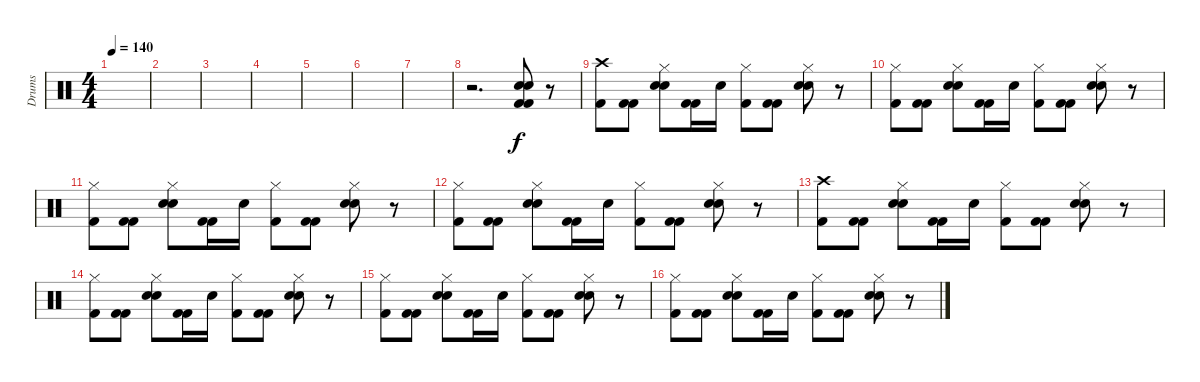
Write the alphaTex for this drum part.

\track ("Drums" "Drums") {instrument percussion}
\staff {score}
\articulation defaults
\ts (4 4)
\tempo 140
\clef neutral
\ks c
|
|
|
|
|
|
|
r.2{d} ("Hand Clap (hit)" "Snare (hit) 2" "Kick (hit) 2" "Kick (hit) 2").8 r.8 |
("Crash high (hit)" "Kick (hit) 2").8 ("Kick (hit) 2" "Kick (hit) 2").8 ("Hi-Hat (closed)" "Hand Clap (hit)" "Snare (hit) 2").8 ("Kick (hit) 2" "Kick (hit) 2").16 "Snare (hit) 2".16 ("Hi-Hat (closed)" "Kick (hit) 2").8 ("Kick (hit) 2" "Kick (hit) 2").8 ("Hi-Hat (closed)" "Hand Clap (hit)" "Snare (hit) 2").8 r.8 |
("Hi-Hat (closed)" "Kick (hit) 2").8 ("Kick (hit) 2" "Kick (hit) 2").8 ("Hi-Hat (closed)" "Hand Clap (hit)" "Snare (hit) 2").8 ("Kick (hit) 2" "Kick (hit) 2").16 "Snare (hit) 2".16 ("Hi-Hat (closed)" "Kick (hit) 2").8 ("Kick (hit) 2" "Kick (hit) 2").8 ("Hi-Hat (closed)" "Hand Clap (hit)" "Snare (hit) 2").8 r.8 |
("Hi-Hat (closed)" "Kick (hit) 2").8 ("Kick (hit) 2" "Kick (hit) 2").8 ("Hi-Hat (closed)" "Hand Clap (hit)" "Snare (hit) 2").8 ("Kick (hit) 2" "Kick (hit) 2").16 "Snare (hit) 2".16 ("Hi-Hat (closed)" "Kick (hit) 2").8 ("Kick (hit) 2" "Kick (hit) 2").8 ("Hi-Hat (closed)" "Hand Clap (hit)" "Snare (hit) 2").8 r.8 |
("Hi-Hat (closed)" "Kick (hit) 2").8 ("Kick (hit) 2" "Kick (hit) 2").8 ("Hi-Hat (closed)" "Hand Clap (hit)" "Snare (hit) 2").8 ("Kick (hit) 2" "Kick (hit) 2").16 "Snare (hit) 2".16 ("Hi-Hat (closed)" "Kick (hit) 2").8 ("Kick (hit) 2" "Kick (hit) 2").8 ("Hi-Hat (closed)" "Hand Clap (hit)" "Snare (hit) 2").8 r.8 |
("Crash high (hit)" "Kick (hit) 2").8 ("Kick (hit) 2" "Kick (hit) 2").8 ("Hi-Hat (closed)" "Hand Clap (hit)" "Snare (hit) 2").8 ("Kick (hit) 2" "Kick (hit) 2").16 "Snare (hit) 2".16 ("Hi-Hat (closed)" "Kick (hit) 2").8 ("Kick (hit) 2" "Kick (hit) 2").8 ("Hi-Hat (closed)" "Hand Clap (hit)" "Snare (hit) 2").8 r.8 |
("Hi-Hat (closed)" "Kick (hit) 2").8 ("Kick (hit) 2" "Kick (hit) 2").8 ("Hi-Hat (closed)" "Hand Clap (hit)" "Snare (hit) 2").8 ("Kick (hit) 2" "Kick (hit) 2").16 "Snare (hit) 2".16 ("Hi-Hat (closed)" "Kick (hit) 2").8 ("Kick (hit) 2" "Kick (hit) 2").8 ("Hi-Hat (closed)" "Hand Clap (hit)" "Snare (hit) 2").8 r.8 |
("Hi-Hat (closed)" "Kick (hit) 2").8 ("Kick (hit) 2" "Kick (hit) 2").8 ("Hi-Hat (closed)" "Hand Clap (hit)" "Snare (hit) 2").8 ("Kick (hit) 2" "Kick (hit) 2").16 "Snare (hit) 2".16 ("Hi-Hat (closed)" "Kick (hit) 2").8 ("Kick (hit) 2" "Kick (hit) 2").8 ("Hi-Hat (closed)" "Hand Clap (hit)" "Snare (hit) 2").8 r.8 |
("Hi-Hat (closed)" "Kick (hit) 2").8 ("Kick (hit) 2" "Kick (hit) 2").8 ("Hi-Hat (closed)" "Hand Clap (hit)" "Snare (hit) 2").8 ("Kick (hit) 2" "Kick (hit) 2").16 "Snare (hit) 2".16 ("Hi-Hat (closed)" "Kick (hit) 2").8 ("Kick (hit) 2" "Kick (hit) 2").8 ("Hi-Hat (closed)" "Hand Clap (hit)" "Snare (hit) 2").8 r.8
